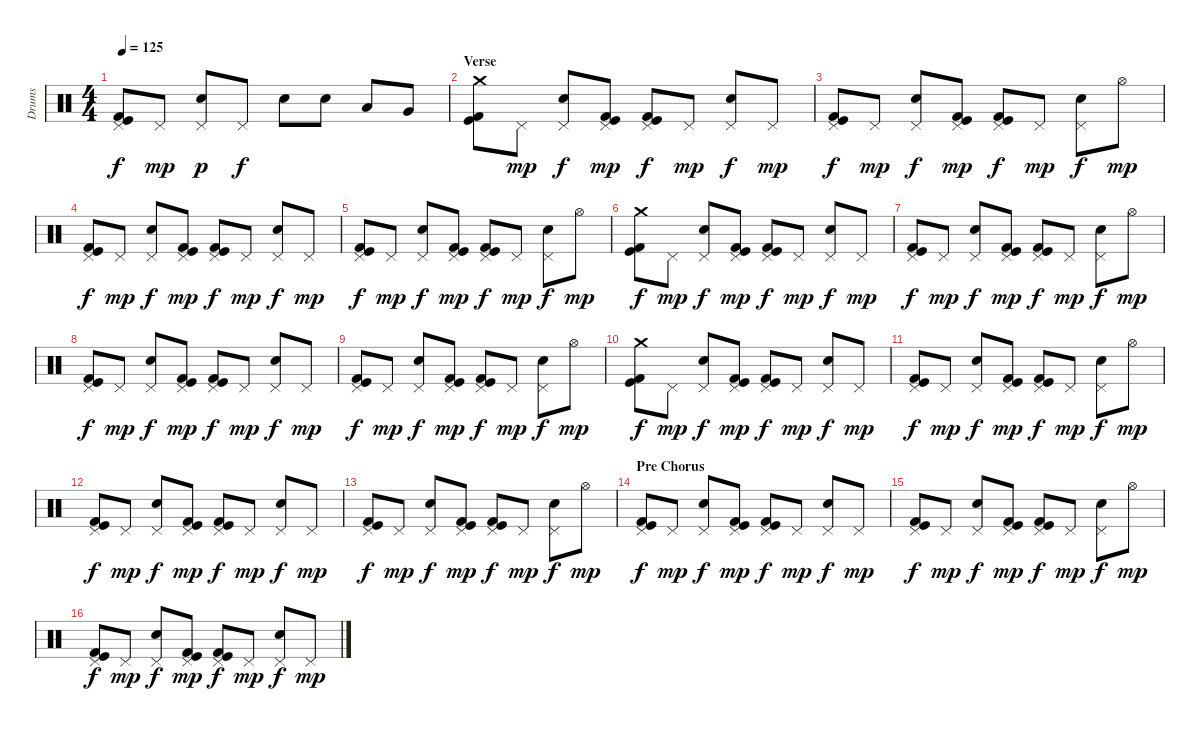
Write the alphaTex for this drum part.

\track ("Drums" "Drums") {instrument percussion}
\staff {score}
\articulation defaults
\ts (4 4)
\tempo 125
\clef neutral
\ks c
("Pedal Hi-Hat (hit)" "Kick (hit) 2" "Kick (hit)").8{dy f} "Pedal Hi-Hat (hit)".8{dy mp} ("Pedal Hi-Hat (hit)" "Electric Snare (hit)").8{dy p} "Pedal Hi-Hat (hit)".8{dy f} "Electric Snare (hit)".8 "Electric Snare (hit)".8 "Low Tom (hit)".8 "Very Low Tom (hit)".8 |
\section ("" "Verse")
("Crash medium (hit)" "Kick (hit) 2" "Kick (hit)").8 "Pedal Hi-Hat (hit)".8{dy mp} ("Pedal Hi-Hat (hit)" "Electric Snare (hit)").8{dy f} ("Pedal Hi-Hat (hit)" "Kick (hit) 2" "Kick (hit)").8{dy mp} ("Pedal Hi-Hat (hit)" "Kick (hit) 2" "Kick (hit)").8{dy f} "Pedal Hi-Hat (hit)".8{dy mp} ("Pedal Hi-Hat (hit)" "Electric Snare (hit)").8{dy f} "Pedal Hi-Hat (hit)".8{dy mp} |
("Pedal Hi-Hat (hit)" "Kick (hit) 2" "Kick (hit)").8{dy f} "Pedal Hi-Hat (hit)".8{dy mp} ("Pedal Hi-Hat (hit)" "Electric Snare (hit)").8{dy f} ("Pedal Hi-Hat (hit)" "Kick (hit) 2" "Kick (hit)").8{dy mp} ("Pedal Hi-Hat (hit)" "Kick (hit) 2" "Kick (hit)").8{dy f} "Pedal Hi-Hat (hit)".8{dy mp} ("Pedal Hi-Hat (hit)" "Electric Snare (hit)").8{dy f} "Hi-Hat (open)".8{dy mp} |
("Pedal Hi-Hat (hit)" "Kick (hit) 2" "Kick (hit)").8{dy f} "Pedal Hi-Hat (hit)".8{dy mp} ("Pedal Hi-Hat (hit)" "Electric Snare (hit)").8{dy f} ("Pedal Hi-Hat (hit)" "Kick (hit) 2" "Kick (hit)").8{dy mp} ("Pedal Hi-Hat (hit)" "Kick (hit) 2" "Kick (hit)").8{dy f} "Pedal Hi-Hat (hit)".8{dy mp} ("Pedal Hi-Hat (hit)" "Electric Snare (hit)").8{dy f} "Pedal Hi-Hat (hit)".8{dy mp} |
("Pedal Hi-Hat (hit)" "Kick (hit) 2" "Kick (hit)").8{dy f} "Pedal Hi-Hat (hit)".8{dy mp} ("Pedal Hi-Hat (hit)" "Electric Snare (hit)").8{dy f} ("Pedal Hi-Hat (hit)" "Kick (hit) 2" "Kick (hit)").8{dy mp} ("Pedal Hi-Hat (hit)" "Kick (hit) 2" "Kick (hit)").8{dy f} "Pedal Hi-Hat (hit)".8{dy mp} ("Pedal Hi-Hat (hit)" "Electric Snare (hit)").8{dy f} "Hi-Hat (open)".8{dy mp} |
("Crash medium (hit)" "Kick (hit) 2" "Kick (hit)").8{dy f} "Pedal Hi-Hat (hit)".8{dy mp} ("Pedal Hi-Hat (hit)" "Electric Snare (hit)").8{dy f} ("Pedal Hi-Hat (hit)" "Kick (hit) 2" "Kick (hit)").8{dy mp} ("Pedal Hi-Hat (hit)" "Kick (hit) 2" "Kick (hit)").8{dy f} "Pedal Hi-Hat (hit)".8{dy mp} ("Pedal Hi-Hat (hit)" "Electric Snare (hit)").8{dy f} "Pedal Hi-Hat (hit)".8{dy mp} |
("Pedal Hi-Hat (hit)" "Kick (hit) 2" "Kick (hit)").8{dy f} "Pedal Hi-Hat (hit)".8{dy mp} ("Pedal Hi-Hat (hit)" "Electric Snare (hit)").8{dy f} ("Pedal Hi-Hat (hit)" "Kick (hit) 2" "Kick (hit)").8{dy mp} ("Pedal Hi-Hat (hit)" "Kick (hit) 2" "Kick (hit)").8{dy f} "Pedal Hi-Hat (hit)".8{dy mp} ("Pedal Hi-Hat (hit)" "Electric Snare (hit)").8{dy f} "Hi-Hat (open)".8{dy mp} |
("Pedal Hi-Hat (hit)" "Kick (hit) 2" "Kick (hit)").8{dy f} "Pedal Hi-Hat (hit)".8{dy mp} ("Pedal Hi-Hat (hit)" "Electric Snare (hit)").8{dy f} ("Pedal Hi-Hat (hit)" "Kick (hit) 2" "Kick (hit)").8{dy mp} ("Pedal Hi-Hat (hit)" "Kick (hit) 2" "Kick (hit)").8{dy f} "Pedal Hi-Hat (hit)".8{dy mp} ("Pedal Hi-Hat (hit)" "Electric Snare (hit)").8{dy f} "Pedal Hi-Hat (hit)".8{dy mp} |
("Pedal Hi-Hat (hit)" "Kick (hit) 2" "Kick (hit)").8{dy f} "Pedal Hi-Hat (hit)".8{dy mp} ("Pedal Hi-Hat (hit)" "Electric Snare (hit)").8{dy f} ("Pedal Hi-Hat (hit)" "Kick (hit) 2" "Kick (hit)").8{dy mp} ("Pedal Hi-Hat (hit)" "Kick (hit) 2" "Kick (hit)").8{dy f} "Pedal Hi-Hat (hit)".8{dy mp} ("Pedal Hi-Hat (hit)" "Electric Snare (hit)").8{dy f} "Hi-Hat (open)".8{dy mp} |
("Crash medium (hit)" "Kick (hit) 2" "Kick (hit)").8{dy f} "Pedal Hi-Hat (hit)".8{dy mp} ("Pedal Hi-Hat (hit)" "Electric Snare (hit)").8{dy f} ("Pedal Hi-Hat (hit)" "Kick (hit) 2" "Kick (hit)").8{dy mp} ("Pedal Hi-Hat (hit)" "Kick (hit) 2" "Kick (hit)").8{dy f} "Pedal Hi-Hat (hit)".8{dy mp} ("Pedal Hi-Hat (hit)" "Electric Snare (hit)").8{dy f} "Pedal Hi-Hat (hit)".8{dy mp} |
("Pedal Hi-Hat (hit)" "Kick (hit) 2" "Kick (hit)").8{dy f} "Pedal Hi-Hat (hit)".8{dy mp} ("Pedal Hi-Hat (hit)" "Electric Snare (hit)").8{dy f} ("Pedal Hi-Hat (hit)" "Kick (hit) 2" "Kick (hit)").8{dy mp} ("Pedal Hi-Hat (hit)" "Kick (hit) 2" "Kick (hit)").8{dy f} "Pedal Hi-Hat (hit)".8{dy mp} ("Pedal Hi-Hat (hit)" "Electric Snare (hit)").8{dy f} "Hi-Hat (open)".8{dy mp} |
("Pedal Hi-Hat (hit)" "Kick (hit) 2" "Kick (hit)").8{dy f} "Pedal Hi-Hat (hit)".8{dy mp} ("Pedal Hi-Hat (hit)" "Electric Snare (hit)").8{dy f} ("Pedal Hi-Hat (hit)" "Kick (hit) 2" "Kick (hit)").8{dy mp} ("Pedal Hi-Hat (hit)" "Kick (hit) 2" "Kick (hit)").8{dy f} "Pedal Hi-Hat (hit)".8{dy mp} ("Pedal Hi-Hat (hit)" "Electric Snare (hit)").8{dy f} "Pedal Hi-Hat (hit)".8{dy mp} |
("Pedal Hi-Hat (hit)" "Kick (hit) 2" "Kick (hit)").8{dy f} "Pedal Hi-Hat (hit)".8{dy mp} ("Pedal Hi-Hat (hit)" "Electric Snare (hit)").8{dy f} ("Pedal Hi-Hat (hit)" "Kick (hit) 2" "Kick (hit)").8{dy mp} ("Pedal Hi-Hat (hit)" "Kick (hit) 2" "Kick (hit)").8{dy f} "Pedal Hi-Hat (hit)".8{dy mp} ("Pedal Hi-Hat (hit)" "Electric Snare (hit)").8{dy f} "Hi-Hat (open)".8{dy mp} |
\section ("" "Pre Chorus")
("Pedal Hi-Hat (hit)" "Kick (hit) 2" "Kick (hit)").8{dy f} "Pedal Hi-Hat (hit)".8{dy mp} ("Pedal Hi-Hat (hit)" "Electric Snare (hit)").8{dy f} ("Pedal Hi-Hat (hit)" "Kick (hit) 2" "Kick (hit)").8{dy mp} ("Pedal Hi-Hat (hit)" "Kick (hit) 2" "Kick (hit)").8{dy f} "Pedal Hi-Hat (hit)".8{dy mp} ("Pedal Hi-Hat (hit)" "Electric Snare (hit)").8{dy f} "Pedal Hi-Hat (hit)".8{dy mp} |
("Pedal Hi-Hat (hit)" "Kick (hit) 2" "Kick (hit)").8{dy f} "Pedal Hi-Hat (hit)".8{dy mp} ("Pedal Hi-Hat (hit)" "Electric Snare (hit)").8{dy f} ("Pedal Hi-Hat (hit)" "Kick (hit) 2" "Kick (hit)").8{dy mp} ("Pedal Hi-Hat (hit)" "Kick (hit) 2" "Kick (hit)").8{dy f} "Pedal Hi-Hat (hit)".8{dy mp} ("Pedal Hi-Hat (hit)" "Electric Snare (hit)").8{dy f} "Hi-Hat (open)".8{dy mp} |
("Pedal Hi-Hat (hit)" "Kick (hit) 2" "Kick (hit)").8{dy f} "Pedal Hi-Hat (hit)".8{dy mp} ("Pedal Hi-Hat (hit)" "Electric Snare (hit)").8{dy f} ("Pedal Hi-Hat (hit)" "Kick (hit) 2" "Kick (hit)").8{dy mp} ("Pedal Hi-Hat (hit)" "Kick (hit) 2" "Kick (hit)").8{dy f} "Pedal Hi-Hat (hit)".8{dy mp} ("Pedal Hi-Hat (hit)" "Electric Snare (hit)").8{dy f} "Pedal Hi-Hat (hit)".8{dy mp}
